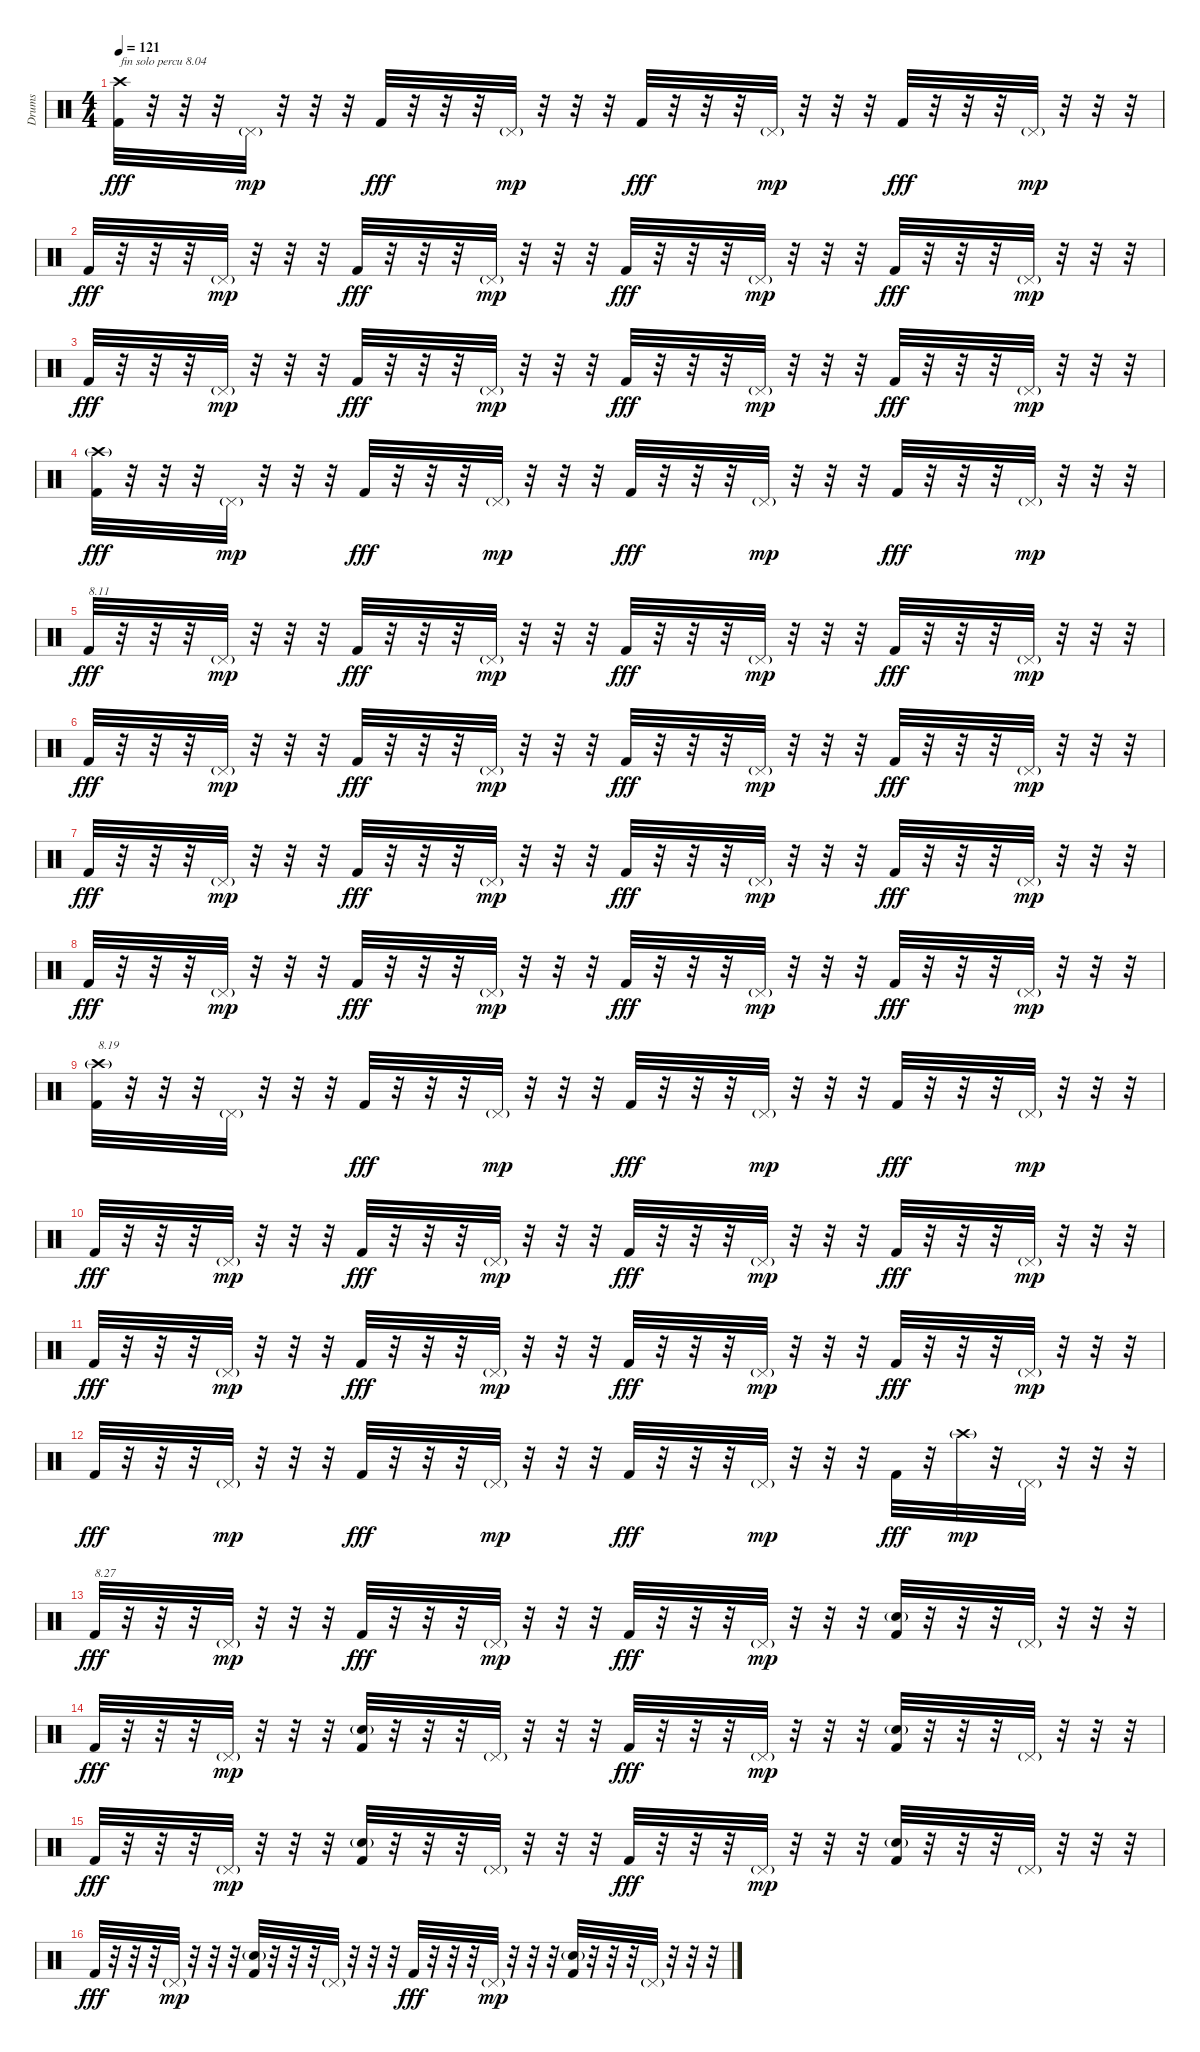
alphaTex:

\track ("Drums" "Drums") {instrument percussion}
\staff {score}
\articulation defaults
\ts (4 4)
\tempo 121
\clef neutral
\ks c
("Kick (hit) 2" "Crash high (hit)").32{txt "fin solo percu 8.04" dy fff} r.32 r.32 r.32 "Pedal Hi-Hat (hit)"{g}.32{dy mp} r.32 r.32 r.32 "Kick (hit) 2".32{dy fff} r.32 r.32 r.32 "Pedal Hi-Hat (hit)"{g}.32{dy mp} r.32 r.32 r.32 "Kick (hit) 2".32{dy fff} r.32 r.32 r.32 "Pedal Hi-Hat (hit)"{g}.32{dy mp} r.32 r.32 r.32 "Kick (hit) 2".32{dy fff} r.32 r.32 r.32 "Pedal Hi-Hat (hit)"{g}.32{dy mp} r.32 r.32 r.32 |
"Kick (hit) 2".32{dy fff} r.32 r.32 r.32 "Pedal Hi-Hat (hit)"{g}.32{dy mp} r.32 r.32 r.32 "Kick (hit) 2".32{dy fff} r.32 r.32 r.32 "Pedal Hi-Hat (hit)"{g}.32{dy mp} r.32 r.32 r.32 "Kick (hit) 2".32{dy fff} r.32 r.32 r.32 "Pedal Hi-Hat (hit)"{g}.32{dy mp} r.32 r.32 r.32 "Kick (hit) 2".32{dy fff} r.32 r.32 r.32 "Pedal Hi-Hat (hit)"{g}.32{dy mp} r.32 r.32 r.32 |
"Kick (hit) 2".32{dy fff} r.32 r.32 r.32 "Pedal Hi-Hat (hit)"{g}.32{dy mp} r.32 r.32 r.32 "Kick (hit) 2".32{dy fff} r.32 r.32 r.32 "Pedal Hi-Hat (hit)"{g}.32{dy mp} r.32 r.32 r.32 "Kick (hit) 2".32{dy fff} r.32 r.32 r.32 "Pedal Hi-Hat (hit)"{g}.32{dy mp} r.32 r.32 r.32 "Kick (hit) 2".32{dy fff} r.32 r.32 r.32 "Pedal Hi-Hat (hit)"{g}.32{dy mp} r.32 r.32 r.32 |
("Crash high (hit)"{g} "Kick (hit) 2").32{dy fff} r.32 r.32 r.32 "Pedal Hi-Hat (hit)"{g}.32{dy mp} r.32 r.32 r.32 "Kick (hit) 2".32{dy fff} r.32 r.32 r.32 "Pedal Hi-Hat (hit)"{g}.32{dy mp} r.32 r.32 r.32 "Kick (hit) 2".32{dy fff} r.32 r.32 r.32 "Pedal Hi-Hat (hit)"{g}.32{dy mp} r.32 r.32 r.32 "Kick (hit) 2".32{dy fff} r.32 r.32 r.32 "Pedal Hi-Hat (hit)"{g}.32{dy mp} r.32 r.32 r.32 |
"Kick (hit) 2".32{txt "8.11" dy fff} r.32 r.32 r.32 "Pedal Hi-Hat (hit)"{g}.32{dy mp} r.32 r.32 r.32 "Kick (hit) 2".32{dy fff} r.32 r.32 r.32 "Pedal Hi-Hat (hit)"{g}.32{dy mp} r.32 r.32 r.32 "Kick (hit) 2".32{dy fff} r.32 r.32 r.32 "Pedal Hi-Hat (hit)"{g}.32{dy mp} r.32 r.32 r.32 "Kick (hit) 2".32{dy fff} r.32 r.32 r.32 "Pedal Hi-Hat (hit)"{g}.32{dy mp} r.32 r.32 r.32 |
"Kick (hit) 2".32{dy fff} r.32 r.32 r.32 "Pedal Hi-Hat (hit)"{g}.32{dy mp} r.32 r.32 r.32 "Kick (hit) 2".32{dy fff} r.32 r.32 r.32 "Pedal Hi-Hat (hit)"{g}.32{dy mp} r.32 r.32 r.32 "Kick (hit) 2".32{dy fff} r.32 r.32 r.32 "Pedal Hi-Hat (hit)"{g}.32{dy mp} r.32 r.32 r.32 "Kick (hit) 2".32{dy fff} r.32 r.32 r.32 "Pedal Hi-Hat (hit)"{g}.32{dy mp} r.32 r.32 r.32 |
"Kick (hit) 2".32{dy fff} r.32 r.32 r.32 "Pedal Hi-Hat (hit)"{g}.32{dy mp} r.32 r.32 r.32 "Kick (hit) 2".32{dy fff} r.32 r.32 r.32 "Pedal Hi-Hat (hit)"{g}.32{dy mp} r.32 r.32 r.32 "Kick (hit) 2".32{dy fff} r.32 r.32 r.32 "Pedal Hi-Hat (hit)"{g}.32{dy mp} r.32 r.32 r.32 "Kick (hit) 2".32{dy fff} r.32 r.32 r.32 "Pedal Hi-Hat (hit)"{g}.32{dy mp} r.32 r.32 r.32 |
"Kick (hit) 2".32{dy fff} r.32 r.32 r.32 "Pedal Hi-Hat (hit)"{g}.32{dy mp} r.32 r.32 r.32 "Kick (hit) 2".32{dy fff} r.32 r.32 r.32 "Pedal Hi-Hat (hit)"{g}.32{dy mp} r.32 r.32 r.32 "Kick (hit) 2".32{dy fff} r.32 r.32 r.32 "Pedal Hi-Hat (hit)"{g}.32{dy mp} r.32 r.32 r.32 "Kick (hit) 2".32{dy fff} r.32 r.32 r.32 "Pedal Hi-Hat (hit)"{g}.32{dy mp} r.32 r.32 r.32 |
("Kick (hit) 2" "Crash high (hit)"{g}).32{txt "8.19"} r.32 r.32 r.32 "Pedal Hi-Hat (hit)"{g}.32 r.32 r.32 r.32 "Kick (hit) 2".32{dy fff} r.32 r.32 r.32 "Pedal Hi-Hat (hit)"{g}.32{dy mp} r.32 r.32 r.32 "Kick (hit) 2".32{dy fff} r.32 r.32 r.32 "Pedal Hi-Hat (hit)"{g}.32{dy mp} r.32 r.32 r.32 "Kick (hit) 2".32{dy fff} r.32 r.32 r.32 "Pedal Hi-Hat (hit)"{g}.32{dy mp} r.32 r.32 r.32 |
"Kick (hit) 2".32{dy fff} r.32 r.32 r.32 "Pedal Hi-Hat (hit)"{g}.32{dy mp} r.32 r.32 r.32 "Kick (hit) 2".32{dy fff} r.32 r.32 r.32 "Pedal Hi-Hat (hit)"{g}.32{dy mp} r.32 r.32 r.32 "Kick (hit) 2".32{dy fff} r.32 r.32 r.32 "Pedal Hi-Hat (hit)"{g}.32{dy mp} r.32 r.32 r.32 "Kick (hit) 2".32{dy fff} r.32 r.32 r.32 "Pedal Hi-Hat (hit)"{g}.32{dy mp} r.32 r.32 r.32 |
"Kick (hit) 2".32{dy fff} r.32 r.32 r.32 "Pedal Hi-Hat (hit)"{g}.32{dy mp} r.32 r.32 r.32 "Kick (hit) 2".32{dy fff} r.32 r.32 r.32 "Pedal Hi-Hat (hit)"{g}.32{dy mp} r.32 r.32 r.32 "Kick (hit) 2".32{dy fff} r.32 r.32 r.32 "Pedal Hi-Hat (hit)"{g}.32{dy mp} r.32 r.32 r.32 "Kick (hit) 2".32{dy fff} r.32 r.32 r.32 "Pedal Hi-Hat (hit)"{g}.32{dy mp} r.32 r.32 r.32 |
"Kick (hit) 2".32{dy fff} r.32 r.32 r.32 "Pedal Hi-Hat (hit)"{g}.32{dy mp} r.32 r.32 r.32 "Kick (hit) 2".32{dy fff} r.32 r.32 r.32 "Pedal Hi-Hat (hit)"{g}.32{dy mp} r.32 r.32 r.32 "Kick (hit) 2".32{dy fff} r.32 r.32 r.32 "Pedal Hi-Hat (hit)"{g}.32{dy mp} r.32 r.32 r.32 "Kick (hit) 2".32{dy fff} r.32 "Crash high (hit)"{g}.32{dy mp} r.32 "Pedal Hi-Hat (hit)"{g}.32 r.32 r.32 r.32 |
"Kick (hit) 2".32{txt "8.27" dy fff} r.32 r.32 r.32 "Pedal Hi-Hat (hit)"{g}.32{dy mp} r.32 r.32 r.32 "Kick (hit) 2".32{dy fff} r.32 r.32 r.32 "Pedal Hi-Hat (hit)"{g}.32{dy mp} r.32 r.32 r.32 "Kick (hit) 2".32{dy fff} r.32 r.32 r.32 "Pedal Hi-Hat (hit)"{g}.32{dy mp} r.32 r.32 r.32 ("Kick (hit) 2" "Snare (hit) 2"{g}).32 r.32 r.32 r.32 "Pedal Hi-Hat (hit)"{g}.32 r.32 r.32 r.32 |
"Kick (hit) 2".32{dy fff} r.32 r.32 r.32 "Pedal Hi-Hat (hit)"{g}.32{dy mp} r.32 r.32 r.32 ("Kick (hit) 2" "Snare (hit) 2"{g}).32 r.32 r.32 r.32 "Pedal Hi-Hat (hit)"{g}.32 r.32 r.32 r.32 "Kick (hit) 2".32{dy fff} r.32 r.32 r.32 "Pedal Hi-Hat (hit)"{g}.32{dy mp} r.32 r.32 r.32 ("Kick (hit) 2" "Snare (hit) 2"{g}).32 r.32 r.32 r.32 "Pedal Hi-Hat (hit)"{g}.32 r.32 r.32 r.32 |
"Kick (hit) 2".32{dy fff} r.32 r.32 r.32 "Pedal Hi-Hat (hit)"{g}.32{dy mp} r.32 r.32 r.32 ("Kick (hit) 2" "Snare (hit) 2"{g}).32 r.32 r.32 r.32 "Pedal Hi-Hat (hit)"{g}.32 r.32 r.32 r.32 "Kick (hit) 2".32{dy fff} r.32 r.32 r.32 "Pedal Hi-Hat (hit)"{g}.32{dy mp} r.32 r.32 r.32 ("Kick (hit) 2" "Snare (hit) 2"{g}).32 r.32 r.32 r.32 "Pedal Hi-Hat (hit)"{g}.32 r.32 r.32 r.32 |
"Kick (hit) 2".32{dy fff} r.32 r.32 r.32 "Pedal Hi-Hat (hit)"{g}.32{dy mp} r.32 r.32 r.32 ("Kick (hit) 2" "Snare (hit) 2"{g}).32 r.32 r.32 r.32 "Pedal Hi-Hat (hit)"{g}.32 r.32 r.32 r.32 "Kick (hit) 2".32{dy fff} r.32 r.32 r.32 "Pedal Hi-Hat (hit)"{g}.32{dy mp} r.32 r.32 r.32 ("Kick (hit) 2" "Snare (hit) 2"{g}).32 r.32 r.32 r.32 "Pedal Hi-Hat (hit)"{g}.32 r.32 r.32 r.32
